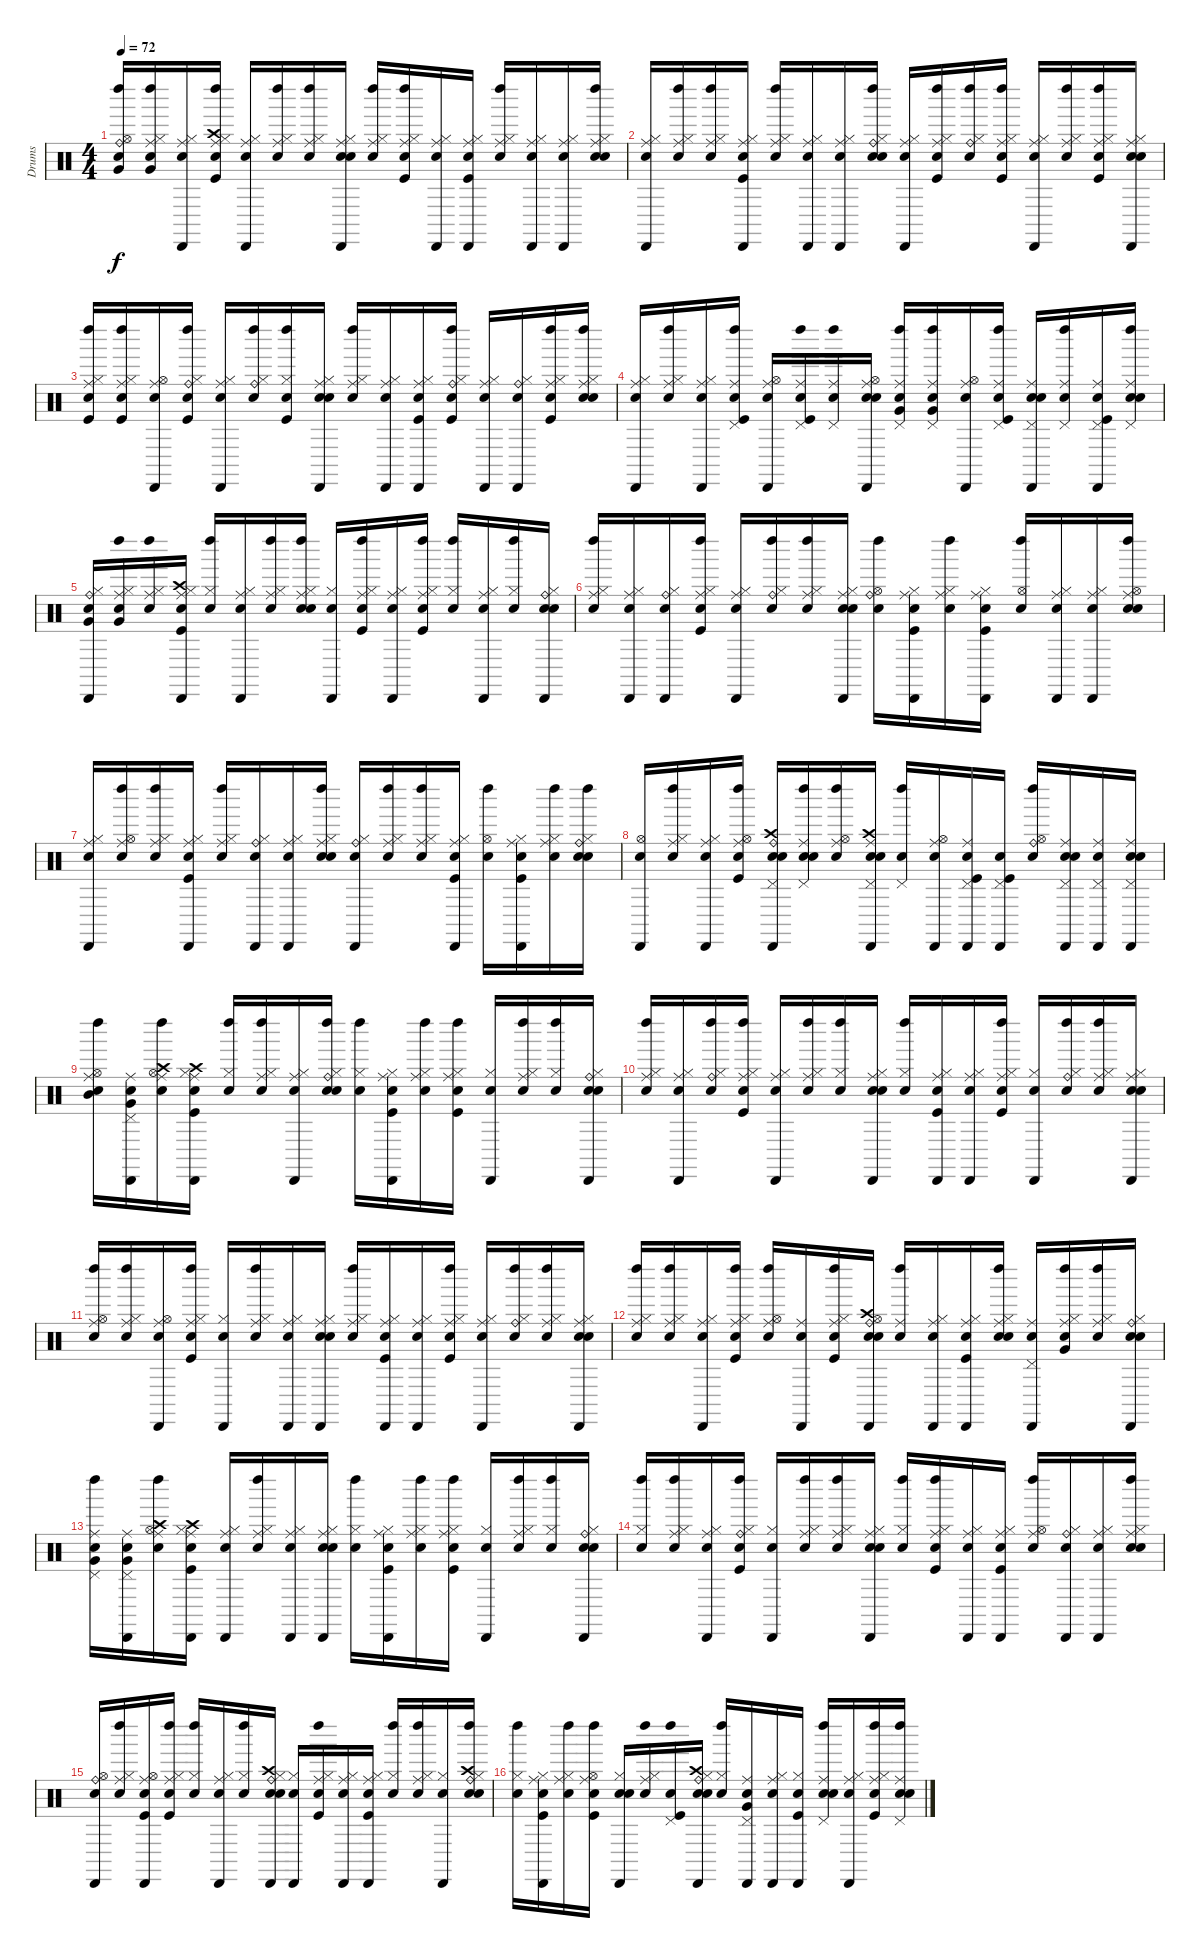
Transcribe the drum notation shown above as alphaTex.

\track ("Drums   " "Drums   ") {instrument percussion}
\staff {score}
\articulation defaults
\ts (4 4)
\tempo 72
\clef neutral
\ks c
("Snare (hit)" "Very Low Tom (hit)" "Left Maraca (hit)" "Hi-Hat (open)" "Ride (bell)").16{dy f} ("Snare (hit)" "Left Maraca (hit)" "Hi-Hat (closed)" "Ride (middle)" "Very Low Tom (hit)").16 ("Snare (hit)" "Ride (middle)" "Hi-Hat (closed)" "Cabasa (hit)").16 ("Snare (hit)" "Ride (middle)" "Kick (hit)" "Crash high (hit)" "Hi-Hat (closed)" "Left Maraca (hit)").16 ("Snare (hit)" "Cabasa (hit)" "Ride (middle)" "Hi-Hat (closed)").16 ("Snare (hit)" "Ride (middle)" "Left Maraca (hit)" "Hi-Hat (closed)").16 ("Snare (hit)" "Ride (middle)" "Hi-Hat (closed)" "Left Maraca (hit)").16 ("Snare (hit)" "Snare (hit) 2" "Hi-Hat (closed)" "Ride (middle)" "Cabasa (hit)").16 ("Snare (hit)" "Hi-Hat (closed)" "Left Maraca (hit)" "Ride (middle)").16 ("Snare (hit)" "Ride (middle)" "Left Maraca (hit)" "Kick (hit)" "Hi-Hat (closed)").16 ("Snare (hit)" "Hi-Hat (closed)" "Ride (middle)" "Cabasa (hit)").16 ("Snare (hit)" "Cabasa (hit)" "Kick (hit)" "Hi-Hat (closed)" "Ride (middle)").16 ("Snare (hit)" "Ride (middle)" "Hi-Hat (closed)" "Left Maraca (hit)").16 ("Snare (hit)" "Ride (middle)" "Cabasa (hit)" "Hi-Hat (closed)").16 ("Snare (hit)" "Cabasa (hit)" "Ride (middle)" "Hi-Hat (closed)").16 ("Snare (hit)" "Ride (middle)" "Snare (hit) 2" "Hi-Hat (closed)" "Left Maraca (hit)").16 |
("Snare (hit)" "Ride (middle)" "Hi-Hat (closed)" "Cabasa (hit)").16 ("Snare (hit)" "Hi-Hat (closed)" "Ride (middle)" "Left Maraca (hit)").16 ("Snare (hit)" "Hi-Hat (closed)" "Ride (middle)" "Left Maraca (hit)").16 ("Snare (hit)" "Ride (middle)" "Cabasa (hit)" "Kick (hit)" "Hi-Hat (closed)").16 ("Snare (hit)" "Hi-Hat (closed)" "Ride (middle)" "Left Maraca (hit)").16 ("Snare (hit)" "Cabasa (hit)" "Ride (middle)" "Hi-Hat (closed)").16 ("Snare (hit)" "Cabasa (hit)" "Ride (middle)" "Hi-Hat (closed)").16 ("Snare (hit)" "Snare (hit) 2" "Left Maraca (hit)" "Hi-Hat (closed)" "Ride (bell)").16 ("Snare (hit)" "Ride (middle)" "Cabasa (hit)" "Hi-Hat (closed)").16 ("Snare (hit)" "Hi-Hat (closed)" "Kick (hit)" "Ride (middle)" "Left Maraca (hit)").16 ("Snare (hit)" "Hi-Hat (closed)" "Ride (bell)" "Left Maraca (hit)").16 ("Snare (hit)" "Ride (middle)" "Left Maraca (hit)" "Kick (hit)" "Hi-Hat (closed)").16 ("Snare (hit)" "Hi-Hat (closed)" "Ride (middle)" "Cabasa (hit)").16 ("Snare (hit)" "Ride (middle)" "Hi-Hat (closed)" "Left Maraca (hit)").16 ("Snare (hit)" "Hi-Hat (closed)" "Kick (hit)" "Ride (middle)" "Left Maraca (hit)").16 ("Snare (hit)" "Ride (middle)" "Cabasa (hit)" "Hi-Hat (closed)" "Snare (hit) 2").16 |
("Snare (hit)" "Kick (hit)" "Hi-Hat (closed)" "Ride (middle)" "Left Maraca (hit)").16 ("Snare (hit)" "Ride (middle)" "Kick (hit)" "Hi-Hat (closed)" "Left Maraca (hit)").16 ("Snare (hit)" "Cabasa (hit)" "Hi-Hat (open)" "Ride (middle)").16 ("Snare (hit)" "Hi-Hat (closed)" "Kick (hit)" "Left Maraca (hit)" "Ride (bell)").16 ("Snare (hit)" "Cabasa (hit)" "Hi-Hat (closed)" "Ride (middle)").16 ("Snare (hit)" "Ride (bell)" "Hi-Hat (closed)" "Left Maraca (hit)").16 ("Snare (hit)" "Hi-Hat (closed)" "Kick (hit)" "Left Maraca (hit)").16 ("Snare (hit)" "Cabasa (hit)" "Hi-Hat (closed)" "Ride (middle)" "Snare (hit) 2").16 ("Snare (hit)" "Hi-Hat (closed)" "Ride (middle)" "Left Maraca (hit)").16 ("Snare (hit)" "Ride (middle)" "Hi-Hat (closed)" "Cabasa (hit)").16 ("Snare (hit)" "Cabasa (hit)" "Kick (hit)" "Ride (middle)" "Hi-Hat (closed)").16 ("Snare (hit)" "Ride (bell)" "Kick (hit)" "Hi-Hat (closed)" "Left Maraca (hit)").16 ("Snare (hit)" "Cabasa (hit)" "Hi-Hat (closed)" "Ride (middle)").16 ("Snare (hit)" "Hi-Hat (closed)" "Ride (bell)" "Cabasa (hit)").16 ("Snare (hit)" "Ride (middle)" "Kick (hit)" "Hi-Hat (closed)" "Left Maraca (hit)").16 ("Snare (hit)" "Ride (middle)" "Left Maraca (hit)" "Snare (hit) 2" "Hi-Hat (closed)").16 |
("Snare (hit)" "Cabasa (hit)" "Hi-Hat (closed)" "Ride (middle)").16 ("Snare (hit)" "Ride (middle)" "Hi-Hat (closed)" "Left Maraca (hit)").16 ("Snare (hit)" "Hi-Hat (closed)" "Ride (middle)" "Cabasa (hit)").16 ("Snare (hit)" "Ride (middle)" "Kick (hit)" "Pedal Hi-Hat (hit)" "Left Maraca (hit)").16 ("Snare (hit)" "Cabasa (hit)" "Ride (middle)" "Hi-Hat (open)").16 ("Snare (hit)" "Pedal Hi-Hat (hit)" "Kick (hit)" "Ride (middle)" "Left Maraca (hit)").16 ("Snare (hit)" "Ride (middle)" "Pedal Hi-Hat (hit)" "Left Maraca (hit)").16 ("Snare (hit)" "Cabasa (hit)" "Snare (hit) 2" "Hi-Hat (open)" "Ride (middle)").16 ("Snare (hit)" "Very Low Tom (hit)" "Pedal Hi-Hat (hit)" "Ride (middle)" "Left Maraca (hit)").16 ("Snare (hit)" "Ride (middle)" "Very Low Tom (hit)" "Pedal Hi-Hat (hit)" "Left Maraca (hit)").16 ("Snare (hit)" "Cabasa (hit)" "Ride (middle)" "Hi-Hat (open)").16 ("Snare (hit)" "Kick (hit)" "Pedal Hi-Hat (hit)" "Ride (middle)" "Left Maraca (hit)").16 ("Snare (hit)" "Snare (hit) 2" "Pedal Hi-Hat (hit)" "Ride (middle)" "Cabasa (hit)").16 ("Snare (hit)" "Ride (middle)" "Left Maraca (hit)" "Pedal Hi-Hat (hit)").16 ("Snare (hit)" "Cabasa (hit)" "Pedal Hi-Hat (hit)" "Kick (hit)" "Ride (middle)").16 ("Snare (hit)" "Left Maraca (hit)" "Snare (hit) 2" "Pedal Hi-Hat (hit)" "Ride (middle)").16 |
("Snare (hit)" "Hi-Hat (closed)" "Very Low Tom (hit)" "Ride (bell)" "Cabasa (hit)").16 ("Snare (hit)" "Hi-Hat (closed)" "Very Low Tom (hit)" "Ride (middle)" "Left Maraca (hit)").16 ("Snare (hit)" "Hi-Hat (closed)" "Ride (middle)" "Left Maraca (hit)").16 ("Snare (hit)" "Ride (middle)" "Cabasa (hit)" "Hi-Hat (closed)" "Kick (hit)" "Crash high (hit)").16 ("Snare (hit)" "Hi-Hat (closed)" "Left Maraca (hit)").16 ("Snare (hit)" "Ride (middle)" "Hi-Hat (closed)" "Cabasa (hit)").16 ("Snare (hit)" "Hi-Hat (closed)" "Ride (middle)" "Left Maraca (hit)").16 ("Snare (hit)" "Hi-Hat (closed)" "Left Maraca (hit)" "Snare (hit) 2" "Ride (middle)").16 ("Snare (hit)" "Cabasa (hit)" "Hi-Hat (closed)").16 ("Snare (hit)" "Ride (middle)" "Kick (hit)" "Hi-Hat (closed)" "Left Maraca (hit)").16 ("Snare (hit)" "Ride (middle)" "Cabasa (hit)" "Hi-Hat (closed)").16 ("Snare (hit)" "Kick (hit)" "Hi-Hat (closed)" "Ride (middle)" "Left Maraca (hit)").16 ("Snare (hit)" "Hi-Hat (closed)" "Left Maraca (hit)").16 ("Snare (hit)" "Cabasa (hit)" "Ride (middle)" "Hi-Hat (closed)").16 ("Snare (hit)" "Hi-Hat (closed)" "Left Maraca (hit)").16 ("Snare (hit)" "Cabasa (hit)" "Ride (bell)" "Snare (hit) 2" "Hi-Hat (closed)").16 |
("Snare (hit)" "Hi-Hat (closed)" "Ride (middle)" "Left Maraca (hit)").16 ("Snare (hit)" "Ride (middle)" "Cabasa (hit)" "Hi-Hat (closed)").16 ("Snare (hit)" "Cabasa (hit)" "Hi-Hat (closed)" "Ride (bell)").16 ("Snare (hit)" "Ride (middle)" "Kick (hit)" "Hi-Hat (closed)" "Left Maraca (hit)").16 ("Snare (hit)" "Cabasa (hit)" "Hi-Hat (closed)" "Ride (middle)").16 ("Snare (hit)" "Hi-Hat (closed)" "Left Maraca (hit)" "Ride (bell)").16 ("Snare (hit)" "Hi-Hat (closed)" "Ride (middle)" "Left Maraca (hit)").16 ("Snare (hit)" "Cabasa (hit)" "Ride (middle)" "Hi-Hat (closed)" "Snare (hit) 2").16 ("Snare (hit)" "Left Maraca (hit)" "Hi-Hat (open)" "Ride (bell)").16 ("Snare (hit)" "Ride (middle)" "Kick (hit)" "Hi-Hat (closed)" "Cabasa (hit)").16 ("Snare (hit)" "Hi-Hat (closed)" "Ride (middle)" "Left Maraca (hit)").16 ("Snare (hit)" "Kick (hit)" "Cabasa (hit)" "Hi-Hat (closed)" "Ride (middle)").16 ("Snare (hit)" "Hi-Hat (open)" "Left Maraca (hit)").16 ("Snare (hit)" "Cabasa (hit)" "Hi-Hat (closed)" "Ride (middle)").16 ("Snare (hit)" "Ride (middle)" "Cabasa (hit)" "Hi-Hat (closed)").16 ("Snare (hit)" "Snare (hit) 2" "Hi-Hat (open)" "Left Maraca (hit)" "Ride (middle)").16 |
("Snare (hit)" "Hi-Hat (closed)" "Ride (middle)" "Cabasa (hit)").16 ("Snare (hit)" "Ride (middle)" "Left Maraca (hit)" "Hi-Hat (open)").16 ("Snare (hit)" "Hi-Hat (closed)" "Ride (middle)" "Left Maraca (hit)").16 ("Snare (hit)" "Hi-Hat (closed)" "Ride (middle)" "Cabasa (hit)" "Kick (hit)").16 ("Snare (hit)" "Ride (middle)" "Hi-Hat (closed)" "Left Maraca (hit)").16 ("Snare (hit)" "Hi-Hat (closed)" "Ride (bell)" "Cabasa (hit)").16 ("Snare (hit)" "Cabasa (hit)" "Ride (middle)" "Hi-Hat (closed)").16 ("Snare (hit)" "Hi-Hat (closed)" "Snare (hit) 2" "Ride (middle)" "Left Maraca (hit)").16 ("Snare (hit)" "Hi-Hat (closed)" "Ride (bell)" "Cabasa (hit)").16 ("Snare (hit)" "Hi-Hat (closed)" "Left Maraca (hit)" "Ride (middle)").16 ("Snare (hit)" "Hi-Hat (closed)" "Ride (middle)" "Left Maraca (hit)").16 ("Snare (hit)" "Cabasa (hit)" "Kick (hit)" "Ride (middle)" "Hi-Hat (closed)").16 ("Snare (hit)" "Hi-Hat (open)" "Left Maraca (hit)").16 ("Snare (hit)" "Ride (middle)" "Kick (hit)" "Hi-Hat (closed)" "Cabasa (hit)").16 ("Snare (hit)" "Ride (middle)" "Hi-Hat (closed)" "Left Maraca (hit)").16 ("Snare (hit)" "Ride (bell)" "Snare (hit) 2" "Hi-Hat (closed)" "Left Maraca (hit)").16 |
("Snare (hit)" "Cabasa (hit)" "Hi-Hat (open)").16 ("Snare (hit)" "Ride (middle)" "Hi-Hat (closed)" "Left Maraca (hit)").16 ("Snare (hit)" "Ride (middle)" "Hi-Hat (closed)" "Cabasa (hit)").16 ("Snare (hit)" "Kick (hit)" "Hi-Hat (open)" "Ride (middle)" "Left Maraca (hit)").16 ("Snare (hit)" "Cabasa (hit)" "Pedal Hi-Hat (hit)" "Snare (hit) 2" "Crash high (hit)" "Ride (bell)").16 ("Snare (hit)" "Pedal Hi-Hat (hit)" "Snare (hit) 2" "Ride (middle)" "Left Maraca (hit)").16 ("Snare (hit)" "Ride (middle)" "Left Maraca (hit)" "Hi-Hat (open)").16 ("Snare (hit)" "Cabasa (hit)" "Snare (hit) 2" "Crash high (hit)" "Pedal Hi-Hat (hit)" "Ride (middle)").16 ("Snare (hit)" "Pedal Hi-Hat (hit)" "Left Maraca (hit)").16 ("Snare (hit)" "Ride (middle)" "Hi-Hat (open)" "Cabasa (hit)").16 ("Snare (hit)" "Kick (hit)" "Pedal Hi-Hat (hit)" "Cabasa (hit)" "Ride (middle)").16 ("Snare (hit)" "Cabasa (hit)" "Pedal Hi-Hat (hit)" "Kick (hit)").16 ("Snare (hit)" "Ride (bell)" "Hi-Hat (open)" "Left Maraca (hit)").16 ("Snare (hit)" "Ride (middle)" "Cabasa (hit)" "Snare (hit) 2" "Pedal Hi-Hat (hit)").16 ("Snare (hit)" "Pedal Hi-Hat (hit)" "Ride (middle)" "Cabasa (hit)").16 ("Snare (hit)" "Pedal Hi-Hat (hit)" "Ride (middle)" "Cabasa (hit)" "Snare (hit) 2").16 |
("Snare (hit)" "Hi-Hat (open)" "Ride (middle)" "Mid Tom (hit)" "Left Maraca (hit)").16 ("Snare (hit)" "Ride (middle)" "Very Low Tom (hit)" "Pedal Hi-Hat (hit)" "Cabasa (hit)").16 ("Snare (hit)" "Ride (middle)" "Crash high (hit)" "Left Maraca (hit)" "Hi-Hat (open)").16 ("Snare (hit)" "Ride (middle)" "Cabasa (hit)" "Hi-Hat (closed)" "Kick (hit)" "Crash high (hit)").16 ("Snare (hit)" "Hi-Hat (closed)" "Left Maraca (hit)").16 ("Snare (hit)" "Hi-Hat (closed)" "Ride (middle)" "Left Maraca (hit)").16 ("Snare (hit)" "Cabasa (hit)" "Hi-Hat (closed)" "Ride (middle)").16 ("Snare (hit)" "Snare (hit) 2" "Ride (bell)" "Left Maraca (hit)" "Hi-Hat (closed)").16 ("Snare (hit)" "Hi-Hat (closed)" "Left Maraca (hit)").16 ("Snare (hit)" "Hi-Hat (closed)" "Cabasa (hit)" "Kick (hit)" "Ride (middle)").16 ("Snare (hit)" "Ride (middle)" "Hi-Hat (closed)" "Left Maraca (hit)").16 ("Snare (hit)" "Ride (middle)" "Kick (hit)" "Hi-Hat (closed)" "Left Maraca (hit)").16 ("Snare (hit)" "Hi-Hat (closed)" "Cabasa (hit)").16 ("Snare (hit)" "Left Maraca (hit)" "Hi-Hat (closed)" "Ride (middle)").16 ("Snare (hit)" "Hi-Hat (closed)" "Left Maraca (hit)").16 ("Snare (hit)" "Cabasa (hit)" "Snare (hit) 2" "Hi-Hat (closed)" "Ride (bell)").16 |
("Snare (hit)" "Ride (middle)" "Hi-Hat (closed)" "Left Maraca (hit)").16 ("Snare (hit)" "Hi-Hat (closed)" "Ride (middle)" "Cabasa (hit)").16 ("Snare (hit)" "Ride (bell)" "Left Maraca (hit)" "Hi-Hat (closed)").16 ("Snare (hit)" "Hi-Hat (closed)" "Ride (middle)" "Kick (hit)" "Left Maraca (hit)").16 ("Snare (hit)" "Ride (middle)" "Hi-Hat (closed)" "Cabasa (hit)").16 ("Snare (hit)" "Left Maraca (hit)" "Hi-Hat (closed)" "Ride (middle)").16 ("Snare (hit)" "Hi-Hat (closed)" "Left Maraca (hit)").16 ("Snare (hit)" "Ride (middle)" "Snare (hit) 2" "Hi-Hat (closed)" "Cabasa (hit)").16 ("Snare (hit)" "Hi-Hat (closed)" "Left Maraca (hit)").16 ("Snare (hit)" "Cabasa (hit)" "Kick (hit)" "Hi-Hat (closed)" "Ride (middle)").16 ("Snare (hit)" "Ride (middle)" "Cabasa (hit)" "Hi-Hat (closed)").16 ("Snare (hit)" "Ride (middle)" "Kick (hit)" "Hi-Hat (closed)" "Left Maraca (hit)").16 ("Snare (hit)" "Hi-Hat (closed)" "Cabasa (hit)").16 ("Snare (hit)" "Ride (bell)" "Hi-Hat (closed)" "Left Maraca (hit)").16 ("Snare (hit)" "Hi-Hat (closed)" "Ride (middle)" "Left Maraca (hit)").16 ("Snare (hit)" "Cabasa (hit)" "Snare (hit) 2" "Ride (middle)" "Hi-Hat (closed)").16 |
("Snare (hit)" "Hi-Hat (open)" "Ride (middle)" "Left Maraca (hit)").16 ("Snare (hit)" "Ride (middle)" "Hi-Hat (closed)" "Left Maraca (hit)").16 ("Snare (hit)" "Ride (middle)" "Cabasa (hit)" "Hi-Hat (open)").16 ("Snare (hit)" "Hi-Hat (closed)" "Ride (middle)" "Kick (hit)" "Left Maraca (hit)").16 ("Snare (hit)" "Cabasa (hit)" "Hi-Hat (closed)").16 ("Snare (hit)" "Hi-Hat (closed)" "Ride (middle)" "Left Maraca (hit)").16 ("Snare (hit)" "Ride (middle)" "Hi-Hat (closed)" "Cabasa (hit)").16 ("Snare (hit)" "Cabasa (hit)" "Snare (hit) 2" "Hi-Hat (closed)" "Ride (middle)").16 ("Snare (hit)" "Hi-Hat (closed)" "Ride (middle)" "Left Maraca (hit)").16 ("Snare (hit)" "Ride (middle)" "Hi-Hat (closed)" "Cabasa (hit)" "Kick (hit)").16 ("Snare (hit)" "Cabasa (hit)" "Ride (middle)" "Hi-Hat (closed)").16 ("Snare (hit)" "Ride (middle)" "Kick (hit)" "Hi-Hat (closed)" "Left Maraca (hit)").16 ("Snare (hit)" "Cabasa (hit)" "Ride (middle)" "Hi-Hat (closed)").16 ("Snare (hit)" "Ride (bell)" "Hi-Hat (closed)" "Left Maraca (hit)").16 ("Snare (hit)" "Ride (middle)" "Hi-Hat (closed)" "Left Maraca (hit)").16 ("Snare (hit)" "Hi-Hat (closed)" "Snare (hit) 2" "Ride (middle)" "Cabasa (hit)").16 |
("Snare (hit)" "Ride (middle)" "Hi-Hat (closed)" "Left Maraca (hit)").16 ("Snare (hit)" "Hi-Hat (closed)" "Ride (middle)" "Left Maraca (hit)").16 ("Snare (hit)" "Cabasa (hit)" "Hi-Hat (closed)" "Ride (middle)").16 ("Snare (hit)" "Ride (middle)" "Kick (hit)" "Hi-Hat (closed)" "Left Maraca (hit)").16 ("Snare (hit)" "Ride (middle)" "Left Maraca (hit)" "Hi-Hat (open)").16 ("Snare (hit)" "Cabasa (hit)" "Ride (middle)").16 ("Snare (hit)" "Ride (middle)" "Kick (hit)" "Left Maraca (hit)" "Hi-Hat (closed)").16 ("Snare (hit)" "Cabasa (hit)" "Ride (bell)" "Snare (hit) 2" "Crash high (hit)" "Hi-Hat (open)").16 ("Snare (hit)" "Ride (middle)" "Left Maraca (hit)").16 ("Snare (hit)" "Ride (middle)" "Cabasa (hit)" "Hi-Hat (closed)").16 ("Snare (hit)" "Ride (middle)" "Kick (hit)" "Hi-Hat (closed)" "Cabasa (hit)").16 ("Snare (hit)" "Ride (middle)" "Snare (hit) 2" "Hi-Hat (closed)" "Left Maraca (hit)").16 ("Snare (hit)" "Ride (middle)" "Cabasa (hit)" "Pedal Hi-Hat (hit)").16 ("Snare (hit)" "Hi-Hat (closed)" "Very Low Tom (hit)" "Ride (middle)" "Left Maraca (hit)").16 ("Snare (hit)" "Hi-Hat (closed)" "Ride (middle)" "Left Maraca (hit)").16 ("Snare (hit)" "Ride (bell)" "Snare (hit) 2" "Hi-Hat (closed)" "Cabasa (hit)").16 |
("Snare (hit)" "Ride (middle)" "Very Low Tom (hit)" "Pedal Hi-Hat (hit)" "Left Maraca (hit)").16 ("Snare (hit)" "Very Low Tom (hit)" "Pedal Hi-Hat (hit)" "Cabasa (hit)" "Ride (middle)").16 ("Snare (hit)" "Ride (middle)" "Hi-Hat (open)" "Crash high (hit)" "Left Maraca (hit)").16 ("Snare (hit)" "Cabasa (hit)" "Kick (hit)" "Hi-Hat (closed)" "Crash high (hit)" "Ride (middle)").16 ("Snare (hit)" "Hi-Hat (closed)" "Ride (middle)" "Cabasa (hit)").16 ("Snare (hit)" "Left Maraca (hit)" "Hi-Hat (closed)" "Ride (middle)").16 ("Snare (hit)" "Cabasa (hit)" "Hi-Hat (closed)" "Ride (middle)").16 ("Snare (hit)" "Cabasa (hit)" "Hi-Hat (closed)" "Snare (hit) 2" "Ride (middle)").16 ("Snare (hit)" "Hi-Hat (closed)" "Left Maraca (hit)").16 ("Snare (hit)" "Cabasa (hit)" "Ride (middle)" "Kick (hit)" "Hi-Hat (closed)").16 ("Snare (hit)" "Ride (middle)" "Left Maraca (hit)" "Hi-Hat (closed)").16 ("Snare (hit)" "Ride (middle)" "Hi-Hat (closed)" "Left Maraca (hit)" "Kick (hit)").16 ("Snare (hit)" "Cabasa (hit)" "Hi-Hat (closed)").16 ("Snare (hit)" "Hi-Hat (closed)" "Ride (middle)" "Left Maraca (hit)").16 ("Snare (hit)" "Hi-Hat (closed)" "Left Maraca (hit)").16 ("Snare (hit)" "Cabasa (hit)" "Snare (hit) 2" "Hi-Hat (closed)" "Ride (bell)").16 |
("Snare (hit)" "Left Maraca (hit)" "Hi-Hat (closed)").16 ("Snare (hit)" "Hi-Hat (closed)" "Ride (middle)" "Left Maraca (hit)").16 ("Snare (hit)" "Ride (middle)" "Hi-Hat (closed)" "Cabasa (hit)").16 ("Snare (hit)" "Ride (bell)" "Left Maraca (hit)" "Kick (hit)" "Hi-Hat (closed)").16 ("Snare (hit)" "Hi-Hat (closed)" "Cabasa (hit)").16 ("Snare (hit)" "Hi-Hat (closed)" "Ride (middle)" "Left Maraca (hit)").16 ("Snare (hit)" "Ride (middle)" "Hi-Hat (closed)" "Left Maraca (hit)").16 ("Snare (hit)" "Hi-Hat (closed)" "Ride (middle)" "Snare (hit) 2" "Cabasa (hit)").16 ("Snare (hit)" "Hi-Hat (closed)" "Left Maraca (hit)").16 ("Snare (hit)" "Left Maraca (hit)" "Kick (hit)" "Hi-Hat (closed)" "Ride (middle)").16 ("Snare (hit)" "Ride (middle)" "Cabasa (hit)" "Hi-Hat (closed)").16 ("Snare (hit)" "Cabasa (hit)" "Kick (hit)" "Hi-Hat (closed)" "Ride (middle)").16 ("Snare (hit)" "Hi-Hat (open)" "Left Maraca (hit)" "Ride (middle)").16 ("Snare (hit)" "Ride (bell)" "Hi-Hat (closed)" "Cabasa (hit)").16 ("Snare (hit)" "Hi-Hat (closed)" "Ride (middle)" "Cabasa (hit)").16 ("Snare (hit)" "Snare (hit) 2" "Hi-Hat (closed)" "Ride (middle)" "Left Maraca (hit)").16 |
("Snare (hit)" "Cabasa (hit)" "Hi-Hat (open)" "Ride (bell)").16 ("Snare (hit)" "Ride (middle)" "Hi-Hat (closed)" "Left Maraca (hit)").16 ("Snare (hit)" "Ride (middle)" "Kick (hit)" "Hi-Hat (open)" "Cabasa (hit)").16 ("Snare (hit)" "Kick (hit)" "Hi-Hat (closed)" "Ride (middle)" "Left Maraca (hit)").16 ("Snare (hit)" "Hi-Hat (closed)" "Left Maraca (hit)").16 ("Snare (hit)" "Hi-Hat (closed)" "Ride (middle)" "Cabasa (hit)").16 ("Snare (hit)" "Hi-Hat (closed)" "Left Maraca (hit)").16 ("Snare (hit)" "Cabasa (hit)" "Hi-Hat (closed)" "Ride (bell)" "Snare (hit) 2" "Crash high (hit)").16 ("Snare (hit)" "Hi-Hat (closed)" "Cabasa (hit)").16 ("Snare (hit)" "Ride (middle)" "Hi-Hat (closed)" "Kick (hit)" "Left Maraca (hit)").16 ("Snare (hit)" "Cabasa (hit)" "Hi-Hat (closed)" "Ride (middle)").16 ("Snare (hit)" "Kick (hit)" "Hi-Hat (closed)" "Ride (middle)" "Cabasa (hit)").16 ("Snare (hit)" "Hi-Hat (closed)" "Left Maraca (hit)").16 ("Snare (hit)" "Hi-Hat (closed)" "Left Maraca (hit)" "Ride (middle)").16 ("Snare (hit)" "Hi-Hat (closed)" "Cabasa (hit)").16 ("Snare (hit)" "Ride (bell)" "Snare (hit) 2" "Hi-Hat (closed)" "Crash high (hit)" "Left Maraca (hit)").16 |
("Snare (hit)" "Hi-Hat (closed)" "Left Maraca (hit)").16 ("Snare (hit)" "Cabasa (hit)" "Ride (middle)" "Kick (hit)" "Hi-Hat (closed)").16 ("Snare (hit)" "Ride (middle)" "Left Maraca (hit)" "Hi-Hat (closed)").16 ("Snare (hit)" "Kick (hit)" "Hi-Hat (open)" "Ride (middle)" "Left Maraca (hit)").16 ("Snare (hit)" "Cabasa (hit)" "Hi-Hat (closed)" "Snare (hit) 2").16 ("Snare (hit)" "Hi-Hat (closed)" "Ride (middle)" "Left Maraca (hit)").16 ("Snare (hit)" "Pedal Hi-Hat (hit)" "Kick (hit)" "Left Maraca (hit)").16 ("Snare (hit)" "Snare (hit) 2" "Hi-Hat (closed)" "Crash high (hit)" "Ride (bell)" "Cabasa (hit)").16 ("Snare (hit)" "Hi-Hat (closed)" "Left Maraca (hit)").16 ("Snare (hit)" "Ride (middle)" "Very Low Tom (hit)" "Cabasa (hit)" "Pedal Hi-Hat (hit)").16 ("Snare (hit)" "Hi-Hat (closed)" "Ride (middle)" "Cabasa (hit)").16 ("Snare (hit)" "Kick (hit)" "Hi-Hat (closed)" "Cabasa (hit)").16 ("Snare (hit)" "Ride (middle)" "Snare (hit) 2" "Pedal Hi-Hat (hit)" "Left Maraca (hit)").16 ("Snare (hit)" "Hi-Hat (closed)" "Ride (middle)" "Cabasa (hit)").16 ("Snare (hit)" "Ride (middle)" "Kick (hit)" "Hi-Hat (closed)" "Left Maraca (hit)").16 ("Snare (hit)" "Ride (middle)" "Snare (hit) 2" "Pedal Hi-Hat (hit)" "Left Maraca (hit)").16
